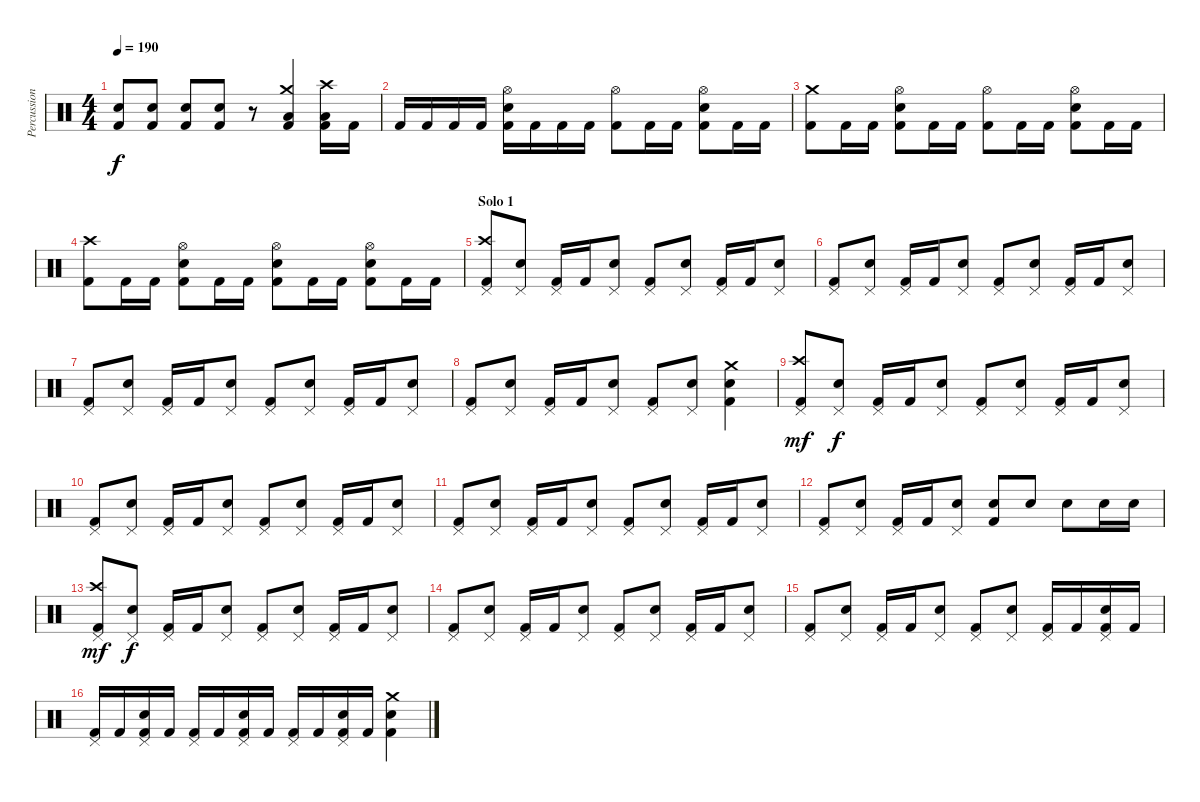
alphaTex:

\track ("Percussion" "Percussion") {instrument percussion}
\staff {score}
\articulation defaults
\ts (4 4)
\tempo 190
\clef neutral
\ks c
("Snare (hit) 2" "Kick (hit) 2").8{dy f} ("Snare (hit) 2" "Kick (hit) 2").8 ("Snare (hit) 2" "Kick (hit) 2").8 ("Snare (hit) 2" "Kick (hit) 2").8 r.8 ("Crash medium (hit)" "Low Floor Tom (hit)" "Kick (hit) 2").4 ("Crash high (hit)" "Low Floor Tom (hit)" "Kick (hit) 2").16 "Kick (hit) 2".16 |
"Kick (hit) 2".16 "Kick (hit) 2".16 "Kick (hit) 2".16 "Kick (hit) 2".16 ("Hi-Hat (open)" "Snare (hit) 2" "Kick (hit) 2").16 "Kick (hit) 2".16 "Kick (hit) 2".16 "Kick (hit) 2".16 ("Hi-Hat (open)" "Kick (hit) 2").8 "Kick (hit) 2".16 "Kick (hit) 2".16 ("Hi-Hat (open)" "Snare (hit) 2" "Kick (hit) 2").8 "Kick (hit) 2".16 "Kick (hit) 2".16 |
("Crash medium (hit)" "Kick (hit) 2").8 "Kick (hit) 2".16 "Kick (hit) 2".16 ("Hi-Hat (open)" "Snare (hit) 2" "Kick (hit) 2").8 "Kick (hit) 2".16 "Kick (hit) 2".16 ("Hi-Hat (open)" "Kick (hit) 2").8 "Kick (hit) 2".16 "Kick (hit) 2".16 ("Hi-Hat (open)" "Snare (hit) 2" "Kick (hit) 2").8 "Kick (hit) 2".16 "Kick (hit) 2".16 |
("Crash high (hit)" "Kick (hit) 2").8 "Kick (hit) 2".16 "Kick (hit) 2".16 ("Hi-Hat (open)" "Snare (hit) 2" "Kick (hit) 2").8 "Kick (hit) 2".16 "Kick (hit) 2".16 ("Hi-Hat (open)" "Snare (hit) 2" "Kick (hit) 2").8 "Kick (hit) 2".16 "Kick (hit) 2".16 ("Hi-Hat (open)" "Snare (hit) 2" "Kick (hit) 2").8 "Kick (hit) 2".16 "Kick (hit) 2".16 |
\section ("" "Solo 1")
("Crash high (hit)" "Pedal Hi-Hat (hit)" "Kick (hit) 2").8 ("Pedal Hi-Hat (hit)" "Snare (hit) 2").8 ("Pedal Hi-Hat (hit)" "Kick (hit) 2").16 "Kick (hit) 2".16 ("Pedal Hi-Hat (hit)" "Snare (hit) 2").8 ("Pedal Hi-Hat (hit)" "Kick (hit) 2").8 ("Pedal Hi-Hat (hit)" "Snare (hit) 2").8 ("Pedal Hi-Hat (hit)" "Kick (hit) 2").16 "Kick (hit) 2".16 ("Pedal Hi-Hat (hit)" "Snare (hit) 2").8 |
("Pedal Hi-Hat (hit)" "Kick (hit) 2").8 ("Pedal Hi-Hat (hit)" "Snare (hit) 2").8 ("Pedal Hi-Hat (hit)" "Kick (hit) 2").16 "Kick (hit) 2".16 ("Pedal Hi-Hat (hit)" "Snare (hit) 2").8 ("Pedal Hi-Hat (hit)" "Kick (hit) 2").8 ("Pedal Hi-Hat (hit)" "Snare (hit) 2").8 ("Pedal Hi-Hat (hit)" "Kick (hit) 2").16 "Kick (hit) 2".16 ("Pedal Hi-Hat (hit)" "Snare (hit) 2").8 |
("Pedal Hi-Hat (hit)" "Kick (hit) 2").8 ("Pedal Hi-Hat (hit)" "Snare (hit) 2").8 ("Pedal Hi-Hat (hit)" "Kick (hit) 2").16 "Kick (hit) 2".16 ("Pedal Hi-Hat (hit)" "Snare (hit) 2").8 ("Pedal Hi-Hat (hit)" "Kick (hit) 2").8 ("Pedal Hi-Hat (hit)" "Snare (hit) 2").8 ("Pedal Hi-Hat (hit)" "Kick (hit) 2").16 "Kick (hit) 2".16 ("Pedal Hi-Hat (hit)" "Snare (hit) 2").8 |
("Pedal Hi-Hat (hit)" "Kick (hit) 2").8 ("Pedal Hi-Hat (hit)" "Snare (hit) 2").8 ("Pedal Hi-Hat (hit)" "Kick (hit) 2").16 "Kick (hit) 2".16 ("Pedal Hi-Hat (hit)" "Snare (hit) 2").8 ("Pedal Hi-Hat (hit)" "Kick (hit) 2").8 ("Pedal Hi-Hat (hit)" "Snare (hit) 2").8 ("Crash medium (hit)" "Snare (hit) 2" "Kick (hit) 2").4 |
("Crash high (hit)" "Pedal Hi-Hat (hit)" "Kick (hit) 2").8{dy mf} ("Pedal Hi-Hat (hit)" "Snare (hit) 2").8{dy f} ("Pedal Hi-Hat (hit)" "Kick (hit) 2").16 "Kick (hit) 2".16 ("Pedal Hi-Hat (hit)" "Snare (hit) 2").8 ("Pedal Hi-Hat (hit)" "Kick (hit) 2").8 ("Pedal Hi-Hat (hit)" "Snare (hit) 2").8 ("Pedal Hi-Hat (hit)" "Kick (hit) 2").16 "Kick (hit) 2".16 ("Pedal Hi-Hat (hit)" "Snare (hit) 2").8 |
("Pedal Hi-Hat (hit)" "Kick (hit) 2").8 ("Pedal Hi-Hat (hit)" "Snare (hit) 2").8 ("Pedal Hi-Hat (hit)" "Kick (hit) 2").16 "Kick (hit) 2".16 ("Pedal Hi-Hat (hit)" "Snare (hit) 2").8 ("Pedal Hi-Hat (hit)" "Kick (hit) 2").8 ("Pedal Hi-Hat (hit)" "Snare (hit) 2").8 ("Pedal Hi-Hat (hit)" "Kick (hit) 2").16 "Kick (hit) 2".16 ("Pedal Hi-Hat (hit)" "Snare (hit) 2").8 |
("Pedal Hi-Hat (hit)" "Kick (hit) 2").8 ("Pedal Hi-Hat (hit)" "Snare (hit) 2").8 ("Pedal Hi-Hat (hit)" "Kick (hit) 2").16 "Kick (hit) 2".16 ("Pedal Hi-Hat (hit)" "Snare (hit) 2").8 ("Pedal Hi-Hat (hit)" "Kick (hit) 2").8 ("Pedal Hi-Hat (hit)" "Snare (hit) 2").8 ("Pedal Hi-Hat (hit)" "Kick (hit) 2").16 "Kick (hit) 2".16 ("Pedal Hi-Hat (hit)" "Snare (hit) 2").8 |
("Pedal Hi-Hat (hit)" "Kick (hit) 2").8 ("Pedal Hi-Hat (hit)" "Snare (hit) 2").8 ("Pedal Hi-Hat (hit)" "Kick (hit) 2").16 "Kick (hit) 2".16 ("Pedal Hi-Hat (hit)" "Snare (hit) 2").8 ("Snare (hit) 2" "Kick (hit) 2").8 "Snare (hit) 2".8 "Snare (hit) 2".8 "Snare (hit) 2".16 "Snare (hit) 2".16 |
("Crash high (hit)" "Pedal Hi-Hat (hit)" "Kick (hit) 2").8{dy mf} ("Pedal Hi-Hat (hit)" "Snare (hit) 2").8{dy f} ("Pedal Hi-Hat (hit)" "Kick (hit) 2").16 "Kick (hit) 2".16 ("Pedal Hi-Hat (hit)" "Snare (hit) 2").8 ("Pedal Hi-Hat (hit)" "Kick (hit) 2").8 ("Pedal Hi-Hat (hit)" "Snare (hit) 2").8 ("Pedal Hi-Hat (hit)" "Kick (hit) 2").16 "Kick (hit) 2".16 ("Pedal Hi-Hat (hit)" "Snare (hit) 2").8 |
("Pedal Hi-Hat (hit)" "Kick (hit) 2").8 ("Pedal Hi-Hat (hit)" "Snare (hit) 2").8 ("Pedal Hi-Hat (hit)" "Kick (hit) 2").16 "Kick (hit) 2".16 ("Pedal Hi-Hat (hit)" "Snare (hit) 2").8 ("Pedal Hi-Hat (hit)" "Kick (hit) 2").8 ("Pedal Hi-Hat (hit)" "Snare (hit) 2").8 ("Pedal Hi-Hat (hit)" "Kick (hit) 2").16 "Kick (hit) 2".16 ("Pedal Hi-Hat (hit)" "Snare (hit) 2").8 |
("Pedal Hi-Hat (hit)" "Kick (hit) 2").8 ("Pedal Hi-Hat (hit)" "Snare (hit) 2").8 ("Pedal Hi-Hat (hit)" "Kick (hit) 2").16 "Kick (hit) 2".16 ("Pedal Hi-Hat (hit)" "Snare (hit) 2").8 ("Pedal Hi-Hat (hit)" "Kick (hit) 2").8 ("Pedal Hi-Hat (hit)" "Snare (hit) 2").8 ("Pedal Hi-Hat (hit)" "Kick (hit) 2").16 "Kick (hit) 2".16 ("Pedal Hi-Hat (hit)" "Snare (hit) 2" "Kick (hit) 2").16 "Kick (hit) 2".16 |
("Pedal Hi-Hat (hit)" "Kick (hit) 2").16 "Kick (hit) 2".16 ("Pedal Hi-Hat (hit)" "Snare (hit) 2" "Kick (hit) 2").16 "Kick (hit) 2".16 ("Pedal Hi-Hat (hit)" "Kick (hit) 2").16 "Kick (hit) 2".16 ("Pedal Hi-Hat (hit)" "Snare (hit) 2" "Kick (hit) 2").16 "Kick (hit) 2".16 ("Pedal Hi-Hat (hit)" "Kick (hit) 2").16 "Kick (hit) 2".16 ("Pedal Hi-Hat (hit)" "Snare (hit) 2" "Kick (hit) 2").16 "Kick (hit) 2".16 ("Crash medium (hit)" "Snare (hit) 2" "Kick (hit) 2").4
